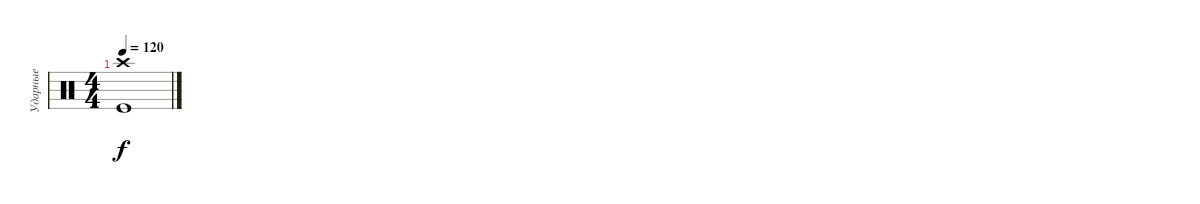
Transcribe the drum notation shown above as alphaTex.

\track ("Ударные" "Ударные") {instrument percussion}
\staff {score}
\articulation defaults
\ts (4 4)
\tempo 120
\clef neutral
\ks c
("Crash high (hit)" "Kick (hit)").1{dy f}
